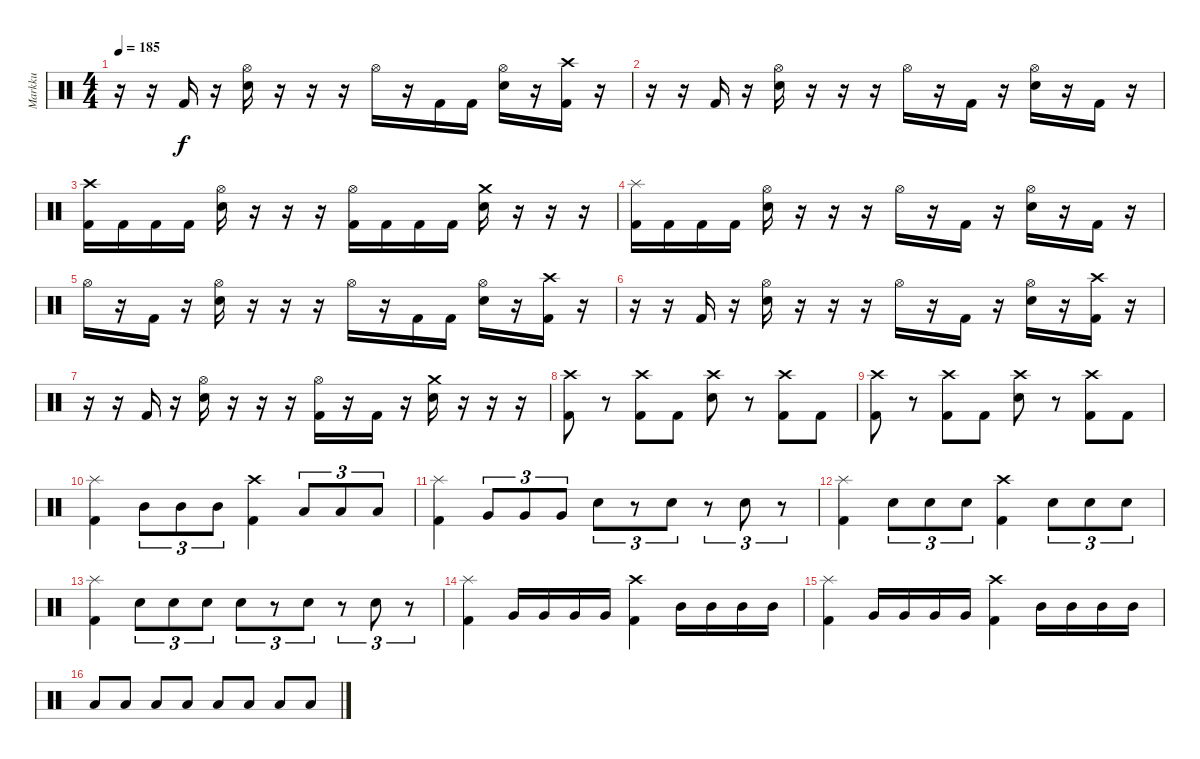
\track ("Markku" "Markku") {instrument percussion}
\staff {score}
\articulation defaults
\ts (4 4)
\tempo 185
\clef neutral
\ks c
r.16{dy f} r.16 "Kick (hit) 2".16 r.16 ("Snare (hit) 2" "Hi-Hat (open)").16 r.16 r.16 r.16 "Hi-Hat (open)".16 r.16 "Kick (hit) 2".16 "Kick (hit) 2".16 ("Snare (hit) 2" "Hi-Hat (open)").16 r.16 ("Kick (hit) 2" "Crash high (hit)").16 r.16 |
r.16 r.16 "Kick (hit) 2".16 r.16 ("Snare (hit) 2" "Hi-Hat (open)").16 r.16 r.16 r.16 "Hi-Hat (open)".16 r.16 "Kick (hit) 2".16 r.16 ("Snare (hit) 2" "Hi-Hat (open)").16 r.16 "Kick (hit) 2".16 r.16 |
("Kick (hit) 2" "Crash high (hit)").16 "Kick (hit) 2".16 "Kick (hit) 2".16 "Kick (hit) 2".16 ("Snare (hit) 2" "Hi-Hat (open)").16 r.16 r.16 r.16 ("Kick (hit) 2" "Hi-Hat (open)").16 "Kick (hit) 2".16 "Kick (hit) 2".16 "Kick (hit) 2".16 ("Snare (hit) 2" "Crash medium (hit)").16 r.16 r.16 r.16 |
("Kick (hit) 2" "Splash (hit)").16 "Kick (hit) 2".16 "Kick (hit) 2".16 "Kick (hit) 2".16 ("Snare (hit) 2" "Hi-Hat (open)").16 r.16 r.16 r.16 "Hi-Hat (open)".16 r.16 "Kick (hit) 2".16 r.16 ("Snare (hit) 2" "Hi-Hat (open)").16 r.16 "Kick (hit) 2".16 r.16 |
"Hi-Hat (open)".16 r.16 "Kick (hit) 2".16 r.16 ("Snare (hit) 2" "Hi-Hat (open)").16 r.16 r.16 r.16 "Hi-Hat (open)".16 r.16 "Kick (hit) 2".16 "Kick (hit) 2".16 ("Snare (hit) 2" "Hi-Hat (open)").16 r.16 ("Kick (hit) 2" "Crash high (hit)").16 r.16 |
r.16 r.16 "Kick (hit) 2".16 r.16 ("Snare (hit) 2" "Hi-Hat (open)").16 r.16 r.16 r.16 "Hi-Hat (open)".16 r.16 "Kick (hit) 2".16 r.16 ("Snare (hit) 2" "Hi-Hat (open)").16 r.16 ("Kick (hit) 2" "Crash high (hit)").16 r.16 |
r.16 r.16 "Kick (hit) 2".16 r.16 ("Snare (hit) 2" "Hi-Hat (open)").16 r.16 r.16 r.16 ("Kick (hit) 2" "Hi-Hat (open)").16 r.16 "Kick (hit) 2".16 r.16 ("Snare (hit) 2" "Crash medium (hit)").16 r.16 r.16 r.16 |
("Kick (hit) 2" "Crash high (hit)").8 r.8 ("Kick (hit) 2" "Crash high (hit)").8 "Kick (hit) 2".8 ("Snare (hit) 2" "Crash high (hit)").8 r.8 ("Kick (hit) 2" "Crash high (hit)").8 "Kick (hit) 2".8 |
("Kick (hit) 2" "Crash high (hit)").8 r.8 ("Kick (hit) 2" "Crash high (hit)").8 "Kick (hit) 2".8 ("Snare (hit) 2" "Crash high (hit)").8 r.8 ("Kick (hit) 2" "Crash high (hit)").8 "Kick (hit) 2".8 |
("Kick (hit) 2" "Splash (hit)").4 "Mid Tom (hit)".8{tu (3 2)} "Mid Tom (hit)".8{tu (3 2)} "Mid Tom (hit)".8{tu (3 2)} ("Kick (hit) 2" "Crash high (hit)").4 "Low Tom (hit)".8{tu (3 2)} "Low Tom (hit)".8{tu (3 2)} "Low Tom (hit)".8{tu (3 2)} |
("Kick (hit) 2" "Splash (hit)").4 "Very Low Tom (hit)".8{tu (3 2)} "Very Low Tom (hit)".8{tu (3 2)} "Very Low Tom (hit)".8{tu (3 2)} "Snare (hit) 2".8{tu (3 2)} r.8{tu (3 2)} "Snare (hit) 2".8{tu (3 2)} r.8{tu (3 2)} "Snare (hit) 2".8{tu (3 2)} r.8{tu (3 2)} |
("Kick (hit) 2" "Splash (hit)").4 "Snare (hit) 2".8{tu (3 2)} "Snare (hit) 2".8{tu (3 2)} "Snare (hit) 2".8{tu (3 2)} ("Kick (hit) 2" "Crash high (hit)").4 "Snare (hit) 2".8{tu (3 2)} "Snare (hit) 2".8{tu (3 2)} "Snare (hit) 2".8{tu (3 2)} |
("Kick (hit) 2" "Splash (hit)").4 "Snare (hit) 2".8{tu (3 2)} "Snare (hit) 2".8{tu (3 2)} "Snare (hit) 2".8{tu (3 2)} "Snare (hit) 2".8{tu (3 2)} r.8{tu (3 2)} "Snare (hit) 2".8{tu (3 2)} r.8{tu (3 2)} "Snare (hit) 2".8{tu (3 2)} r.8{tu (3 2)} |
("Kick (hit) 2" "Splash (hit)").4 "Very Low Tom (hit)".16 "Very Low Tom (hit)".16 "Very Low Tom (hit)".16 "Very Low Tom (hit)".16 ("Kick (hit) 2" "Crash high (hit)").4 "Mid Tom (hit)".16 "Mid Tom (hit)".16 "Mid Tom (hit)".16 "Mid Tom (hit)".16 |
("Kick (hit) 2" "Splash (hit)").4 "Very Low Tom (hit)".16 "Very Low Tom (hit)".16 "Very Low Tom (hit)".16 "Very Low Tom (hit)".16 ("Kick (hit) 2" "Crash high (hit)").4 "Mid Tom (hit)".16 "Mid Tom (hit)".16 "Mid Tom (hit)".16 "Mid Tom (hit)".16 |
"Low Tom (hit)".8 "Low Tom (hit)".8 "Low Tom (hit)".8 "Low Tom (hit)".8 "Low Tom (hit)".8 "Low Tom (hit)".8 "Low Tom (hit)".8 "Low Tom (hit)".8
